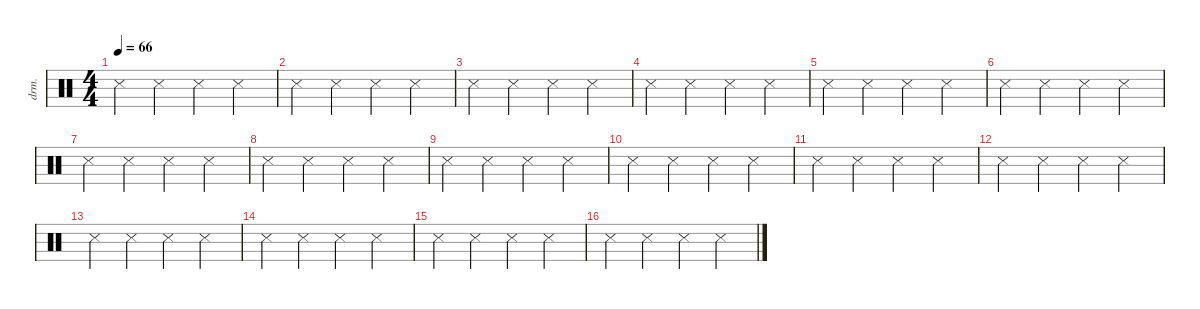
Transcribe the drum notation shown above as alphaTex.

\defaultSystemsLayout 4
\hideDynamics
\bracketExtendMode nobrackets
\otherSystemsTrackNameOrientation horizontal
\track ("Drumkit" "drm.") {instrument percussion}
\staff {score}
\articulation defaults
\ts (4 4)
\tempo 66
\clef neutral
\ks c "Metronome (hit)".4{dy mf} "Metronome (hit)".4 "Metronome (hit)".4 "Metronome (hit)".4
|
"Metronome (hit)".4 "Metronome (hit)".4 "Metronome (hit)".4 "Metronome (hit)".4 |
"Metronome (hit)".4 "Metronome (hit)".4 "Metronome (hit)".4 "Metronome (hit)".4 |
"Metronome (hit)".4 "Metronome (hit)".4 "Metronome (hit)".4 "Metronome (hit)".4 |
"Metronome (hit)".4 "Metronome (hit)".4 "Metronome (hit)".4 "Metronome (hit)".4 |
"Metronome (hit)".4 "Metronome (hit)".4 "Metronome (hit)".4 "Metronome (hit)".4 |
"Metronome (hit)".4 "Metronome (hit)".4 "Metronome (hit)".4 "Metronome (hit)".4 |
"Metronome (hit)".4 "Metronome (hit)".4 "Metronome (hit)".4 "Metronome (hit)".4 |
"Metronome (hit)".4 "Metronome (hit)".4 "Metronome (hit)".4 "Metronome (hit)".4 |
"Metronome (hit)".4 "Metronome (hit)".4 "Metronome (hit)".4 "Metronome (hit)".4 |
"Metronome (hit)".4 "Metronome (hit)".4 "Metronome (hit)".4 "Metronome (hit)".4 |
"Metronome (hit)".4 "Metronome (hit)".4 "Metronome (hit)".4 "Metronome (hit)".4 |
"Metronome (hit)".4 "Metronome (hit)".4 "Metronome (hit)".4 "Metronome (hit)".4 |
"Metronome (hit)".4 "Metronome (hit)".4 "Metronome (hit)".4 "Metronome (hit)".4 |
"Metronome (hit)".4 "Metronome (hit)".4 "Metronome (hit)".4 "Metronome (hit)".4 |
"Metronome (hit)".4 "Metronome (hit)".4 "Metronome (hit)".4 "Metronome (hit)".4
